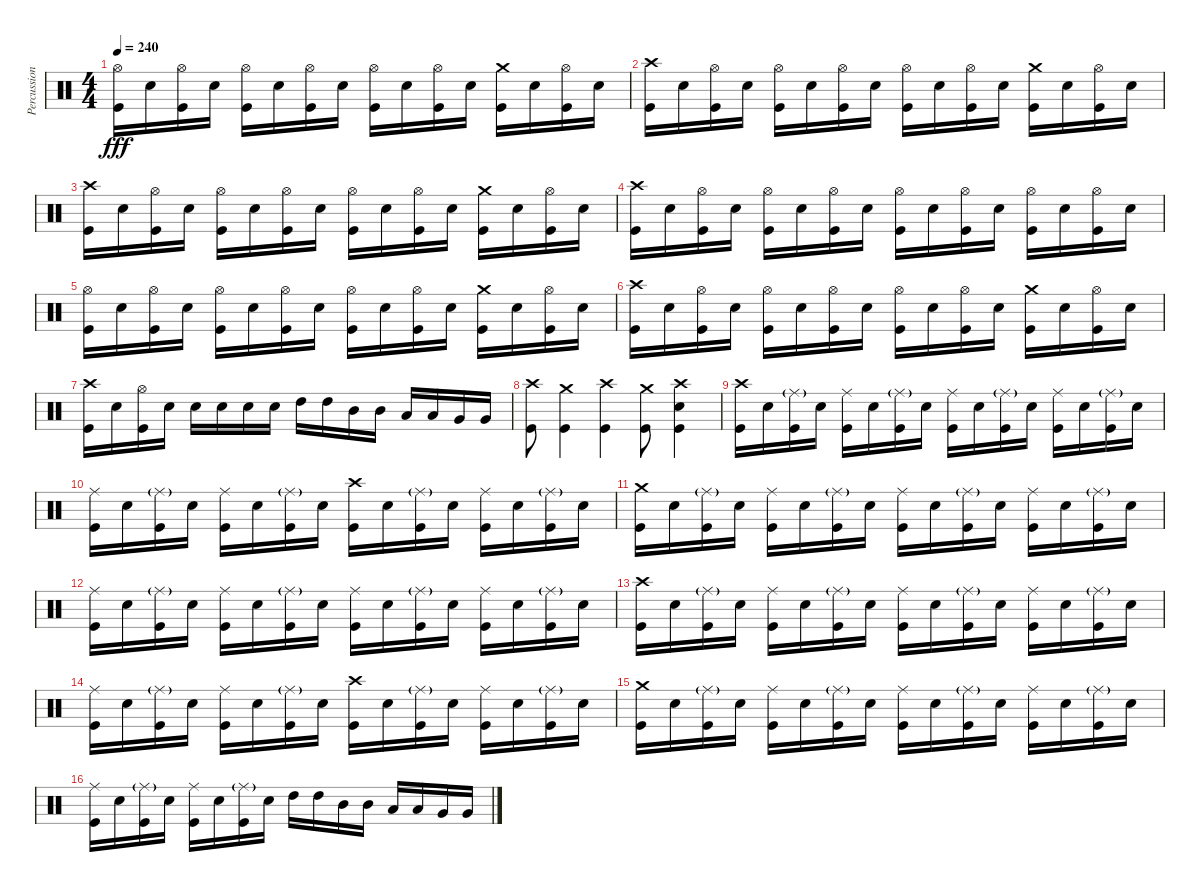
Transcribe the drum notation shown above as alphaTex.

\track ("Percussion" "Percussion") {instrument percussion}
\staff {score}
\articulation defaults
\ts (4 4)
\tempo 240
\clef neutral
\ks c
("Kick (hit)" "Hi-Hat (open)").16{dy fff} "Snare (hit) 2".16 ("Kick (hit)" "Hi-Hat (open)").16 "Snare (hit) 2".16 ("Kick (hit)" "Hi-Hat (open)").16 "Snare (hit) 2".16 ("Kick (hit)" "Hi-Hat (open)").16 "Snare (hit) 2".16 ("Kick (hit)" "Hi-Hat (open)").16 "Snare (hit) 2".16 ("Kick (hit)" "Hi-Hat (open)").16 "Snare (hit) 2".16 ("Kick (hit)" "Crash medium (hit)").16 "Snare (hit) 2".16 ("Kick (hit)" "Hi-Hat (open)").16 "Snare (hit) 2".16 |
("Kick (hit)" "Crash high (hit)").16 "Snare (hit) 2".16 ("Kick (hit)" "Hi-Hat (open)").16 "Snare (hit) 2".16 ("Kick (hit)" "Hi-Hat (open)").16 "Snare (hit) 2".16 ("Kick (hit)" "Hi-Hat (open)").16 "Snare (hit) 2".16 ("Kick (hit)" "Hi-Hat (open)").16 "Snare (hit) 2".16 ("Kick (hit)" "Hi-Hat (open)").16 "Snare (hit) 2".16 ("Kick (hit)" "Crash medium (hit)").16 "Snare (hit) 2".16 ("Kick (hit)" "Hi-Hat (open)").16 "Snare (hit) 2".16 |
("Kick (hit)" "Crash high (hit)").16 "Snare (hit) 2".16 ("Kick (hit)" "Hi-Hat (open)").16 "Snare (hit) 2".16 ("Kick (hit)" "Hi-Hat (open)").16 "Snare (hit) 2".16 ("Kick (hit)" "Hi-Hat (open)").16 "Snare (hit) 2".16 ("Kick (hit)" "Hi-Hat (open)").16 "Snare (hit) 2".16 ("Kick (hit)" "Hi-Hat (open)").16 "Snare (hit) 2".16 ("Kick (hit)" "Crash medium (hit)").16 "Snare (hit) 2".16 ("Kick (hit)" "Hi-Hat (open)").16 "Snare (hit) 2".16 |
("Kick (hit)" "Crash high (hit)").16 "Snare (hit) 2".16 ("Kick (hit)" "Hi-Hat (open)").16 "Snare (hit) 2".16 ("Kick (hit)" "Hi-Hat (open)").16 "Snare (hit) 2".16 ("Kick (hit)" "Hi-Hat (open)").16 "Snare (hit) 2".16 ("Kick (hit)" "Hi-Hat (open)").16 "Snare (hit) 2".16 ("Kick (hit)" "Hi-Hat (open)").16 "Snare (hit) 2".16 ("Kick (hit)" "Hi-Hat (open)").16 "Snare (hit) 2".16 ("Kick (hit)" "Hi-Hat (open)").16 "Snare (hit) 2".16 |
("Kick (hit)" "Hi-Hat (open)").16 "Snare (hit) 2".16 ("Kick (hit)" "Hi-Hat (open)").16 "Snare (hit) 2".16 ("Kick (hit)" "Hi-Hat (open)").16 "Snare (hit) 2".16 ("Kick (hit)" "Hi-Hat (open)").16 "Snare (hit) 2".16 ("Kick (hit)" "Hi-Hat (open)").16 "Snare (hit) 2".16 ("Kick (hit)" "Hi-Hat (open)").16 "Snare (hit) 2".16 ("Kick (hit)" "Crash medium (hit)").16 "Snare (hit) 2".16 ("Kick (hit)" "Hi-Hat (open)").16 "Snare (hit) 2".16 |
("Kick (hit)" "Crash high (hit)").16 "Snare (hit) 2".16 ("Kick (hit)" "Hi-Hat (open)").16 "Snare (hit) 2".16 ("Kick (hit)" "Hi-Hat (open)").16 "Snare (hit) 2".16 ("Kick (hit)" "Hi-Hat (open)").16 "Snare (hit) 2".16 ("Kick (hit)" "Hi-Hat (open)").16 "Snare (hit) 2".16 ("Kick (hit)" "Hi-Hat (open)").16 "Snare (hit) 2".16 ("Kick (hit)" "Crash medium (hit)").16 "Snare (hit) 2".16 ("Kick (hit)" "Hi-Hat (open)").16 "Snare (hit) 2".16 |
("Kick (hit)" "Crash high (hit)").16 "Snare (hit) 2".16 ("Kick (hit)" "Hi-Hat (open)").16 "Snare (hit) 2".16 "Snare (hit) 2".16 "Snare (hit) 2".16 "Snare (hit) 2".16 "Snare (hit) 2".16 "High Tom (hit)".16 "High Tom (hit)".16 "Mid Tom (hit)".16 "Mid Tom (hit)".16 "Low Tom (hit)".16 "Low Tom (hit)".16 "Very Low Tom (hit)".16 "Very Low Tom (hit)".16 |
("Crash high (hit)" "Kick (hit)").8 ("Kick (hit)" "Crash medium (hit)").4 ("Kick (hit)" "Crash high (hit)").4 ("Kick (hit)" "Crash medium (hit)").8 ("Kick (hit)" "Crash high (hit)" "Snare (hit) 2").4 |
("Crash high (hit)" "Kick (hit)").16 "Snare (hit) 2".16 ("Ride (middle)"{g} "Kick (hit)").16 "Snare (hit) 2".16 ("Ride (middle)" "Kick (hit)").16 "Snare (hit) 2".16 ("Ride (middle)"{g} "Kick (hit)").16 "Snare (hit) 2".16 ("Ride (middle)" "Kick (hit)").16 "Snare (hit) 2".16 ("Ride (middle)"{g} "Kick (hit)").16 "Snare (hit) 2".16 ("Ride (middle)" "Kick (hit)").16 "Snare (hit) 2".16 ("Ride (middle)"{g} "Kick (hit)").16 "Snare (hit) 2".16 |
("Ride (middle)" "Kick (hit)").16 "Snare (hit) 2".16 ("Ride (middle)"{g} "Kick (hit)").16 "Snare (hit) 2".16 ("Ride (middle)" "Kick (hit)").16 "Snare (hit) 2".16 ("Ride (middle)"{g} "Kick (hit)").16 "Snare (hit) 2".16 ("Crash high (hit)" "Kick (hit)").16 "Snare (hit) 2".16 ("Ride (middle)"{g} "Kick (hit)").16 "Snare (hit) 2".16 ("Ride (middle)" "Kick (hit)").16 "Snare (hit) 2".16 ("Ride (middle)"{g} "Kick (hit)").16 "Snare (hit) 2".16 |
("Crash medium (hit)" "Kick (hit)").16 "Snare (hit) 2".16 ("Ride (middle)"{g} "Kick (hit)").16 "Snare (hit) 2".16 ("Ride (middle)" "Kick (hit)").16 "Snare (hit) 2".16 ("Ride (middle)"{g} "Kick (hit)").16 "Snare (hit) 2".16 ("Ride (middle)" "Kick (hit)").16 "Snare (hit) 2".16 ("Ride (middle)"{g} "Kick (hit)").16 "Snare (hit) 2".16 ("Ride (middle)" "Kick (hit)").16 "Snare (hit) 2".16 ("Ride (middle)"{g} "Kick (hit)").16 "Snare (hit) 2".16 |
("Ride (middle)" "Kick (hit)").16 "Snare (hit) 2".16 ("Ride (middle)"{g} "Kick (hit)").16 "Snare (hit) 2".16 ("Ride (middle)" "Kick (hit)").16 "Snare (hit) 2".16 ("Ride (middle)"{g} "Kick (hit)").16 "Snare (hit) 2".16 ("Ride (middle)" "Kick (hit)").16 "Snare (hit) 2".16 ("Ride (middle)"{g} "Kick (hit)").16 "Snare (hit) 2".16 ("Ride (middle)" "Kick (hit)").16 "Snare (hit) 2".16 ("Ride (middle)"{g} "Kick (hit)").16 "Snare (hit) 2".16 |
("Crash high (hit)" "Kick (hit)").16 "Snare (hit) 2".16 ("Ride (middle)"{g} "Kick (hit)").16 "Snare (hit) 2".16 ("Ride (middle)" "Kick (hit)").16 "Snare (hit) 2".16 ("Ride (middle)"{g} "Kick (hit)").16 "Snare (hit) 2".16 ("Ride (middle)" "Kick (hit)").16 "Snare (hit) 2".16 ("Ride (middle)"{g} "Kick (hit)").16 "Snare (hit) 2".16 ("Ride (middle)" "Kick (hit)").16 "Snare (hit) 2".16 ("Ride (middle)"{g} "Kick (hit)").16 "Snare (hit) 2".16 |
("Ride (middle)" "Kick (hit)").16 "Snare (hit) 2".16 ("Ride (middle)"{g} "Kick (hit)").16 "Snare (hit) 2".16 ("Ride (middle)" "Kick (hit)").16 "Snare (hit) 2".16 ("Ride (middle)"{g} "Kick (hit)").16 "Snare (hit) 2".16 ("Crash high (hit)" "Kick (hit)").16 "Snare (hit) 2".16 ("Ride (middle)"{g} "Kick (hit)").16 "Snare (hit) 2".16 ("Ride (middle)" "Kick (hit)").16 "Snare (hit) 2".16 ("Ride (middle)"{g} "Kick (hit)").16 "Snare (hit) 2".16 |
("Crash medium (hit)" "Kick (hit)").16 "Snare (hit) 2".16 ("Ride (middle)"{g} "Kick (hit)").16 "Snare (hit) 2".16 ("Ride (middle)" "Kick (hit)").16 "Snare (hit) 2".16 ("Ride (middle)"{g} "Kick (hit)").16 "Snare (hit) 2".16 ("Ride (middle)" "Kick (hit)").16 "Snare (hit) 2".16 ("Ride (middle)"{g} "Kick (hit)").16 "Snare (hit) 2".16 ("Ride (middle)" "Kick (hit)").16 "Snare (hit) 2".16 ("Ride (middle)"{g} "Kick (hit)").16 "Snare (hit) 2".16 |
("Ride (middle)" "Kick (hit)").16 "Snare (hit) 2".16 ("Ride (middle)"{g} "Kick (hit)").16 "Snare (hit) 2".16 ("Ride (middle)" "Kick (hit)").16 "Snare (hit) 2".16 ("Ride (middle)"{g} "Kick (hit)").16 "Snare (hit) 2".16 "High Tom (hit)".16 "High Tom (hit)".16 "Mid Tom (hit)".16 "Mid Tom (hit)".16 "Low Tom (hit)".16 "Low Tom (hit)".16 "Very Low Tom (hit)".16 "Very Low Tom (hit)".16
